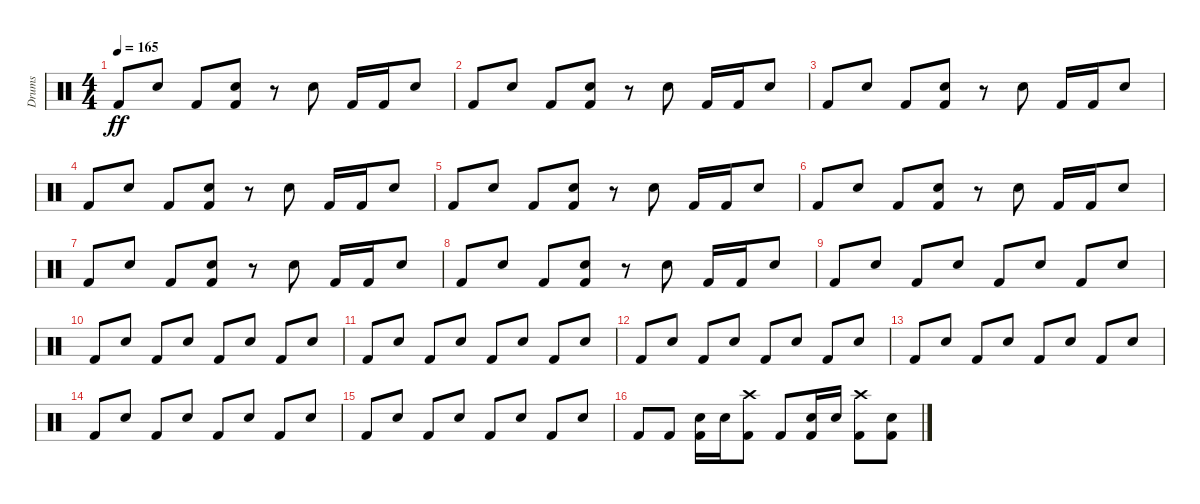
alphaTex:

\track ("Drums" "Drums") {instrument percussion}
\staff {score}
\articulation defaults
\ts (4 4)
\tempo 165
\clef neutral
\ks c "Kick (hit) 2".8{dy ff} "Snare (hit) 2".8 "Kick (hit) 2".8
("Kick (hit) 2" "Snare (hit) 2").8 r.8 "Snare (hit) 2".8 "Kick (hit) 2".16 "Kick (hit) 2".16 "Snare (hit) 2".8 |
"Kick (hit) 2".8 "Snare (hit) 2".8 "Kick (hit) 2".8 ("Snare (hit) 2" "Kick (hit) 2").8 r.8 "Snare (hit) 2".8 "Kick (hit) 2".16 "Kick (hit) 2".16 "Snare (hit) 2".8 |
"Kick (hit) 2".8 "Snare (hit) 2".8 "Kick (hit) 2".8 ("Kick (hit) 2" "Snare (hit) 2").8 r.8 "Snare (hit) 2".8 "Kick (hit) 2".16 "Kick (hit) 2".16 "Snare (hit) 2".8 |
"Kick (hit) 2".8 "Snare (hit) 2".8 "Kick (hit) 2".8 ("Snare (hit) 2" "Kick (hit) 2").8 r.8 "Snare (hit) 2".8 "Kick (hit) 2".16 "Kick (hit) 2".16 "Snare (hit) 2".8 |
"Kick (hit) 2".8 "Snare (hit) 2".8 "Kick (hit) 2".8 ("Kick (hit) 2" "Snare (hit) 2").8 r.8 "Snare (hit) 2".8 "Kick (hit) 2".16 "Kick (hit) 2".16 "Snare (hit) 2".8 |
"Kick (hit) 2".8 "Snare (hit) 2".8 "Kick (hit) 2".8 ("Snare (hit) 2" "Kick (hit) 2").8 r.8 "Snare (hit) 2".8 "Kick (hit) 2".16 "Kick (hit) 2".16 "Snare (hit) 2".8 |
"Kick (hit) 2".8 "Snare (hit) 2".8 "Kick (hit) 2".8 ("Kick (hit) 2" "Snare (hit) 2").8 r.8 "Snare (hit) 2".8 "Kick (hit) 2".16 "Kick (hit) 2".16 "Snare (hit) 2".8 |
"Kick (hit) 2".8 "Snare (hit) 2".8 "Kick (hit) 2".8 ("Snare (hit) 2" "Kick (hit) 2").8 r.8 "Snare (hit) 2".8 "Kick (hit) 2".16 "Kick (hit) 2".16 "Snare (hit) 2".8 |
"Kick (hit) 2".8 "Snare (hit) 2".8 "Kick (hit) 2".8 "Snare (hit) 2".8 "Kick (hit) 2".8 "Snare (hit) 2".8 "Kick (hit) 2".8 "Snare (hit) 2".8 |
"Kick (hit) 2".8 "Snare (hit) 2".8 "Kick (hit) 2".8 "Snare (hit) 2".8 "Kick (hit) 2".8 "Snare (hit) 2".8 "Kick (hit) 2".8 "Snare (hit) 2".8 |
"Kick (hit) 2".8 "Snare (hit) 2".8 "Kick (hit) 2".8 "Snare (hit) 2".8 "Kick (hit) 2".8 "Snare (hit) 2".8 "Kick (hit) 2".8 "Snare (hit) 2".8 |
"Kick (hit) 2".8 "Snare (hit) 2".8 "Kick (hit) 2".8 "Snare (hit) 2".8 "Kick (hit) 2".8 "Snare (hit) 2".8 "Kick (hit) 2".8 "Snare (hit) 2".8 |
"Kick (hit) 2".8 "Snare (hit) 2".8 "Kick (hit) 2".8 "Snare (hit) 2".8 "Kick (hit) 2".8 "Snare (hit) 2".8 "Kick (hit) 2".8 "Snare (hit) 2".8 |
"Kick (hit) 2".8 "Snare (hit) 2".8 "Kick (hit) 2".8 "Snare (hit) 2".8 "Kick (hit) 2".8 "Snare (hit) 2".8 "Kick (hit) 2".8 "Snare (hit) 2".8 |
"Kick (hit) 2".8 "Snare (hit) 2".8 "Kick (hit) 2".8 "Snare (hit) 2".8 "Kick (hit) 2".8 "Snare (hit) 2".8 "Kick (hit) 2".8 "Snare (hit) 2".8 |
"Kick (hit) 2".8 "Kick (hit) 2".8 ("Snare (hit) 2" "Kick (hit) 2").16 "Snare (hit) 2".16 ("Crash high (hit)" "Kick (hit) 2").8 "Kick (hit) 2".8 ("Snare (hit) 2" "Kick (hit) 2").16 "Snare (hit) 2".16 ("Crash high (hit)" "Kick (hit) 2").8 ("Snare (hit) 2" "Kick (hit) 2").8
